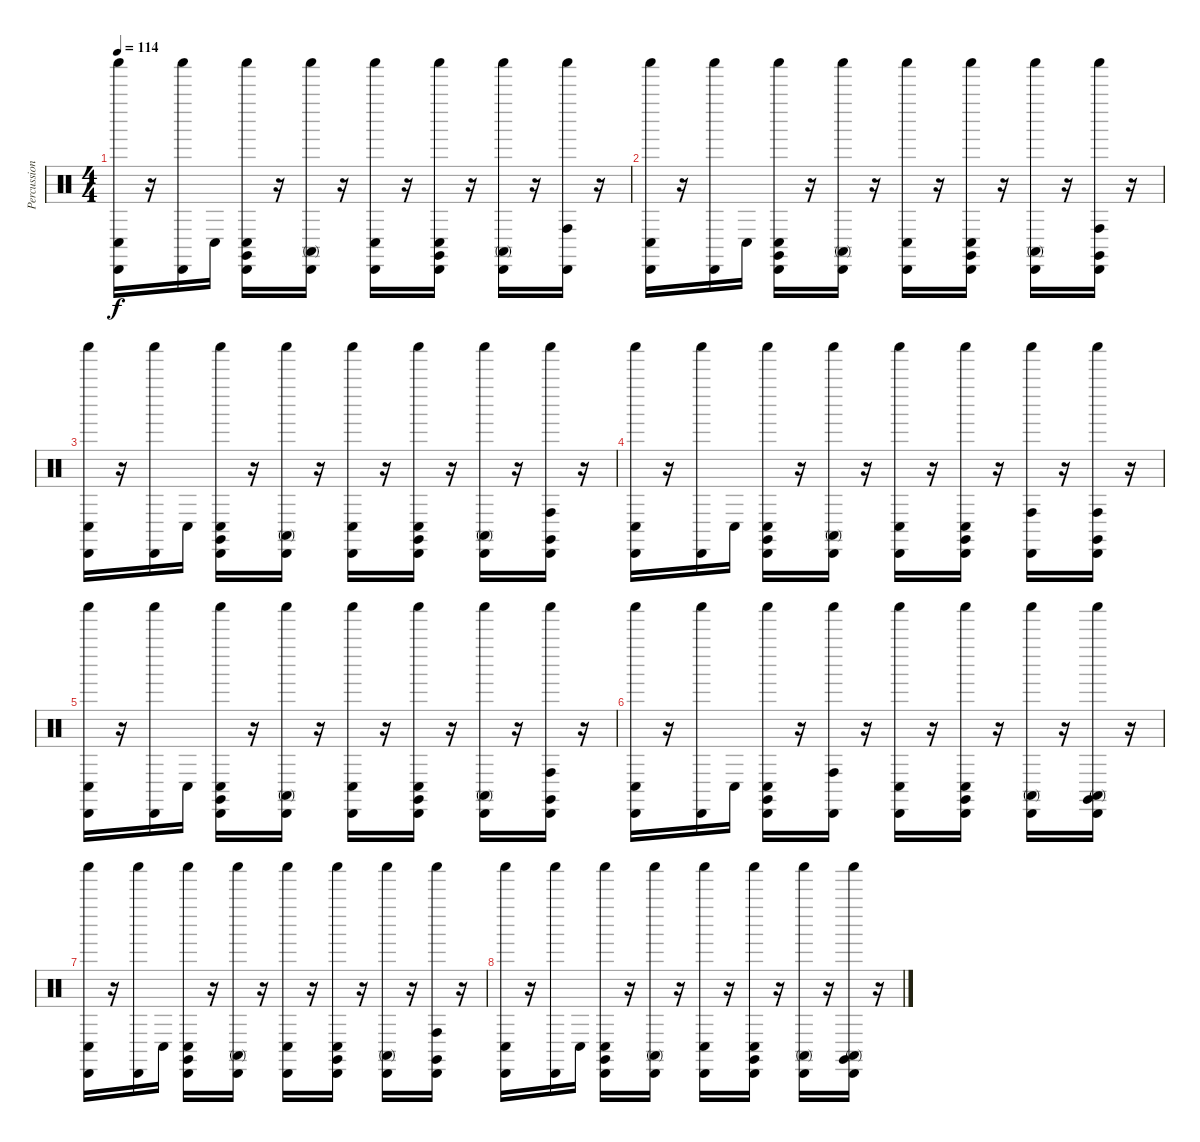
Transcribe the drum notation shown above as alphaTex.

\track ("Percussion (Std Set)" "Percussion") {instrument percussion}
\staff {score}
\articulation defaults
\ts (4 4)
\tempo 114
\clef neutral
\ks c
("Shaker (hit)" "Conga low (hit)" "Cabasa (hit)").16{dy f} r.16 ("Cabasa (hit)" "Shaker (hit)").16 "Conga low (hit)".16 ("Cabasa (hit)" "Conga low (hit)" "Shaker (hit)" "Claves (hit)").16 r.16 ("Cabasa (hit)" "Shaker (hit)" "Conga high (mute)").16 r.16 ("Cabasa (hit)" "Shaker (hit)" "Conga low (hit)").16 r.16 ("Conga low (hit)" "Claves (hit)" "Shaker (hit)" "Cabasa (hit)").16 r.16 ("Cabasa (hit)" "Conga high (mute)" "Shaker (hit)").16 r.16 ("Shaker (hit)" "Conga high (hit)" "Cabasa (hit)").16 r.16 |
("Cabasa (hit)" "Conga low (hit)" "Shaker (hit)").16 r.16 ("Cabasa (hit)" "Shaker (hit)").16 "Conga low (hit)".16 ("Conga low (hit)" "Cabasa (hit)" "Shaker (hit)" "Claves (hit)").16 r.16 ("Shaker (hit)" "Conga high (mute)" "Cabasa (hit)").16 r.16 ("Shaker (hit)" "Conga low (hit)" "Cabasa (hit)").16 r.16 ("Cabasa (hit)" "Shaker (hit)" "Claves (hit)" "Conga low (hit)").16 r.16 ("Shaker (hit)" "Cabasa (hit)" "Conga high (mute)").16 r.16 ("Claves (hit)" "Conga high (hit)" "Cabasa (hit)" "Shaker (hit)").16 r.16 |
("Cabasa (hit)" "Shaker (hit)" "Conga low (hit)").16 r.16 ("Shaker (hit)" "Cabasa (hit)").16 "Conga low (hit)".16 ("Conga low (hit)" "Claves (hit)" "Cabasa (hit)" "Shaker (hit)").16 r.16 ("Conga high (mute)" "Shaker (hit)" "Cabasa (hit)").16 r.16 ("Shaker (hit)" "Cabasa (hit)" "Conga low (hit)").16 r.16 ("Shaker (hit)" "Conga low (hit)" "Claves (hit)" "Cabasa (hit)").16 r.16 ("Cabasa (hit)" "Shaker (hit)" "Conga high (mute)").16 r.16 ("Conga high (hit)" "Cabasa (hit)" "Claves (hit)" "Shaker (hit)").16 r.16 |
("Conga low (hit)" "Cabasa (hit)" "Shaker (hit)").16 r.16 ("Cabasa (hit)" "Shaker (hit)").16 "Conga low (hit)".16 ("Shaker (hit)" "Conga low (hit)" "Claves (hit)" "Cabasa (hit)").16 r.16 ("Cabasa (hit)" "Shaker (hit)" "Conga high (mute)").16 r.16 ("Conga low (hit)" "Shaker (hit)" "Cabasa (hit)").16 r.16 ("Shaker (hit)" "Cabasa (hit)" "Conga low (hit)" "Claves (hit)").16 r.16 ("Conga high (hit)" "Cabasa (hit)" "Shaker (hit)").16 r.16 ("Claves (hit)" "Conga high (hit)" "Shaker (hit)" "Cabasa (hit)").16 r.16 |
("Cabasa (hit)" "Conga low (hit)" "Shaker (hit)").16 r.16 ("Cabasa (hit)" "Shaker (hit)").16 "Conga low (hit)".16 ("Conga low (hit)" "Shaker (hit)" "Cabasa (hit)" "Claves (hit)").16 r.16 ("Conga high (mute)" "Shaker (hit)" "Cabasa (hit)").16 r.16 ("Shaker (hit)" "Cabasa (hit)" "Conga low (hit)").16 r.16 ("Conga low (hit)" "Shaker (hit)" "Claves (hit)" "Cabasa (hit)").16 r.16 ("Conga high (mute)" "Cabasa (hit)" "Shaker (hit)").16 r.16 ("Claves (hit)" "Conga high (hit)" "Cabasa (hit)" "Shaker (hit)").16 r.16 |
("Shaker (hit)" "Cabasa (hit)" "Conga low (hit)").16 r.16 ("Cabasa (hit)" "Shaker (hit)").16 "Conga low (hit)".16 ("Shaker (hit)" "Cabasa (hit)" "Claves (hit)" "Conga low (hit)").16 r.16 ("Shaker (hit)" "Cabasa (hit)" "Conga high (hit)").16 r.16 ("Conga low (hit)" "Cabasa (hit)" "Shaker (hit)").16 r.16 ("Claves (hit)" "Conga low (hit)" "Cabasa (hit)" "Shaker (hit)").16 r.16 ("Conga high (mute)" "Shaker (hit)" "Cabasa (hit)").16 r.16 ("Conga high (mute)" "Cabasa (hit)" "Claves (hit)" "Shaker (hit)").16 r.16 |
("Cabasa (hit)" "Conga low (hit)" "Shaker (hit)").16 r.16 ("Cabasa (hit)" "Shaker (hit)").16 "Conga low (hit)".16 ("Shaker (hit)" "Cabasa (hit)" "Conga low (hit)" "Claves (hit)").16 r.16 ("Cabasa (hit)" "Conga high (mute)" "Shaker (hit)").16 r.16 ("Conga low (hit)" "Shaker (hit)" "Cabasa (hit)").16 r.16 ("Shaker (hit)" "Claves (hit)" "Cabasa (hit)" "Conga low (hit)").16 r.16 ("Conga high (mute)" "Cabasa (hit)" "Shaker (hit)").16 r.16 ("Claves (hit)" "Shaker (hit)" "Conga high (hit)" "Cabasa (hit)").16 r.16 |
("Conga low (hit)" "Shaker (hit)" "Cabasa (hit)").16 r.16 ("Shaker (hit)" "Cabasa (hit)").16 "Conga low (hit)".16 ("Claves (hit)" "Shaker (hit)" "Conga low (hit)" "Cabasa (hit)").16 r.16 ("Conga high (mute)" "Cabasa (hit)" "Shaker (hit)").16 r.16 ("Shaker (hit)" "Cabasa (hit)" "Conga low (hit)").16 r.16 ("Claves (hit)" "Shaker (hit)" "Cabasa (hit)" "Conga low (hit)").16 r.16 ("Cabasa (hit)" "Shaker (hit)" "Conga high (mute)").16 r.16 ("Conga high (mute)" "Cabasa (hit)" "Claves (hit)" "Shaker (hit)").16 r.16
